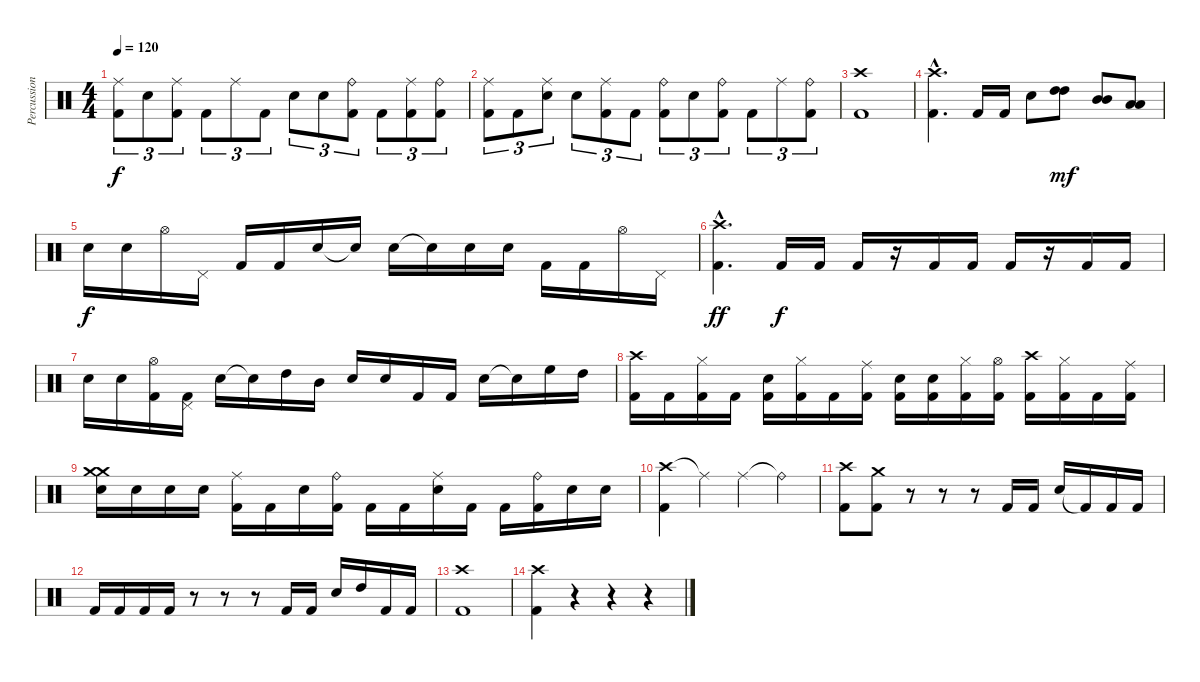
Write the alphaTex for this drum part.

\track ("Percussioni" "Percussion") {instrument percussion}
\staff {score}
\articulation defaults
\ts (4 4)
\tempo 120
\clef neutral
\ks c
("Ride (middle)" "Kick (hit) 2").8{tu (3 2) dy f} "Electric Snare (hit)".8{tu (3 2)} ("Ride (middle)" "Kick (hit) 2").8{tu (3 2)} "Kick (hit) 2".8{tu (3 2)} "Ride (middle)".8{tu (3 2)} "Kick (hit) 2".8{tu (3 2)} "Electric Snare (hit)".8{tu (3 2)} "Electric Snare (hit)".8{tu (3 2)} ("Ride (bell)" "Kick (hit) 2").8{tu (3 2)} "Kick (hit) 2".8{tu (3 2)} ("Kick (hit) 2" "Ride (middle)").8{tu (3 2)} ("Kick (hit) 2" "Ride (bell)").8{tu (3 2)} |
("Ride (middle)" "Kick (hit) 2").8{tu (3 2)} "Kick (hit) 2".8{tu (3 2)} ("Ride (middle)" "Electric Snare (hit)").8{tu (3 2)} "Electric Snare (hit)".8{tu (3 2)} ("Ride (middle)" "Kick (hit) 2").8{tu (3 2)} "Kick (hit) 2".8{tu (3 2)} ("Ride (bell)" "Kick (hit) 2").8{tu (3 2)} "Electric Snare (hit)".8{tu (3 2)} ("Ride (bell)" "Kick (hit) 2").8{tu (3 2)} "Kick (hit) 2".8{tu (3 2)} "Ride (middle)".8{tu (3 2)} ("Kick (hit) 2" "Ride (bell)").8{tu (3 2)} |
("Crash high (hit)" "Kick (hit) 2").1 |
("Crash high (hit)"{hac} "Kick (hit) 2"{hac}).4{d} "Kick (hit) 2".16 "Kick (hit) 2".16 "Electric Snare (hit)".8 ("High Tom (hit)" "High Tom (hit)").8{bd 60 dy mf} ("Mid Tom (hit)" "Mid Tom (hit)").8{bd 60} ("Low Tom (hit)" "Low Tom (hit)").8{bd 60} |
"Electric Snare (hit)".16{dy f} "Electric Snare (hit)".16 "Hi-Hat (open)".16 "Pedal Hi-Hat (hit)".16 "Kick (hit) 2".16 "Kick (hit) 2".16 "Electric Snare (hit)".16 "Snare (hit)"{t}.16 "Electric Snare (hit)".16 "Snare (hit)"{t}.16 "Electric Snare (hit)".16 "Electric Snare (hit)".16 "Kick (hit) 2".16 "Kick (hit) 2".16 "Hi-Hat (open)".16 "Pedal Hi-Hat (hit)".16 |
("Crash high (hit)"{hac} "Kick (hit) 2"{hac}).4{d dy ff} "Kick (hit) 2".16{dy f} "Kick (hit) 2".16 "Kick (hit) 2".16 r.16 "Kick (hit) 2".16 "Kick (hit) 2".16 "Kick (hit) 2".16 r.16 "Kick (hit) 2".16 "Kick (hit) 2".16 |
"Electric Snare (hit)".16 "Electric Snare (hit)".16 ("Hi-Hat (open)" "Kick (hit) 2").16 ("Pedal Hi-Hat (hit)" "Kick (hit) 2").16 "Electric Snare (hit)".16 "Snare (hit)"{t}.16 "High Tom (hit)".16 "Mid Tom (hit)".16 "Electric Snare (hit)".16 "Electric Snare (hit)".16 "Kick (hit) 2".16 "Kick (hit) 2".16 "Electric Snare (hit)".16 "Snare (hit)"{t}.16 "High Floor Tom (hit)".16 "High Tom (hit)".16 |
("Crash high (hit)" "Kick (hit) 2").16 "Kick (hit) 2".16 ("Hi-Hat (closed)" "Kick (hit) 2").16 "Kick (hit) 2".16 ("Electric Snare (hit)" "Kick (hit) 2").16 ("Hi-Hat (closed)" "Kick (hit) 2").16 "Kick (hit) 2".16 ("Ride (middle)" "Kick (hit) 2").16 ("Electric Snare (hit)" "Kick (hit) 2").16 ("Electric Snare (hit)" "Kick (hit) 2").16 ("Hi-Hat (closed)" "Kick (hit) 2").16 ("Hi-Hat (open)" "Kick (hit) 2").16 ("Crash high (hit)" "Kick (hit) 2").16 ("Hi-Hat (closed)" "Kick (hit) 2").16 "Kick (hit) 2".16 ("Ride (middle)" "Kick (hit) 2").16 |
("Crash medium (hit)" "Crash medium (hit)" "Electric Snare (hit)").16 "Electric Snare (hit)".16 "Electric Snare (hit)".16 "Electric Snare (hit)".16 ("Ride (middle)" "Kick (hit) 2").16 "Kick (hit) 2".16 "Electric Snare (hit)".16 ("Ride (bell)" "Kick (hit) 2").16 "Kick (hit) 2".16 "Kick (hit) 2".16 ("Ride (middle)" "Electric Snare (hit)").16 "Kick (hit) 2".16 "Kick (hit) 2".16 ("Ride (bell)" "Kick (hit) 2").16 "Electric Snare (hit)".16 "Electric Snare (hit)".16 |
("Crash high (hit)" "Kick (hit) 2").4 "Ride (middle)"{t}.4 "Ride (middle)".4 "Ride (bell)"{t}.4 |
("Crash high (hit)" "Kick (hit) 2").8 ("Crash medium (hit)" "Kick (hit) 2").8 r.8 r.8 r.8 "Kick (hit) 2".16 "Kick (hit) 2".16 "Electric Snare (hit)".16 "Kick (hit) 2"{t}.16 "Kick (hit) 2".16 "Kick (hit) 2".16 |
"Kick (hit) 2".16 "Kick (hit) 2".16 "Kick (hit) 2".16 "Kick (hit) 2".16 r.8 r.8 r.8 "Kick (hit) 2".16 "Kick (hit) 2".16 "Electric Snare (hit)".16 "High Tom (hit)".16 "Kick (hit) 2".16 "Kick (hit) 2".16 |
("Crash high (hit)" "Kick (hit) 2").1 |
("Crash high (hit)" "Kick (hit) 2").4 r.4 r.4 r.4
